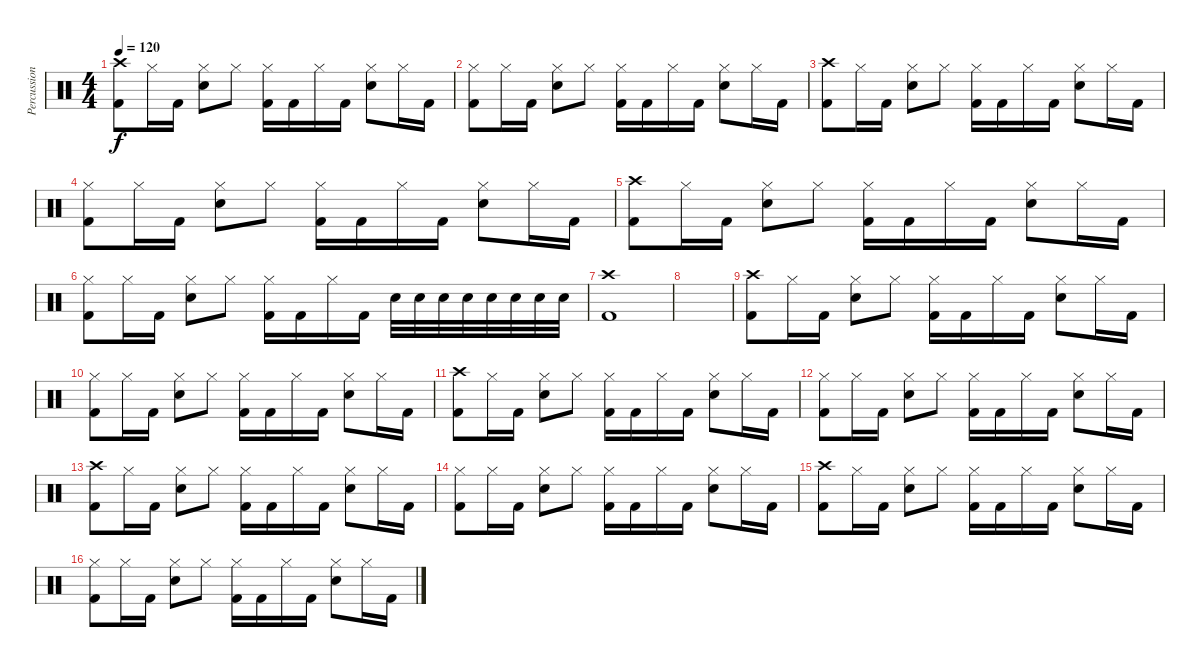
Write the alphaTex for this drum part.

\track ("Percussion" "Percussion") {instrument percussion}
\staff {score}
\articulation defaults
\ts (4 4)
\tempo 120
\clef neutral
\ks c
("Kick (hit) 2" "Crash high (hit)").8{dy f} "Hi-Hat (closed)".16 "Kick (hit) 2".16 ("Snare (hit) 2" "Hi-Hat (closed)").8 "Hi-Hat (closed)".8 ("Kick (hit) 2" "Hi-Hat (closed)").16 "Kick (hit) 2".16 "Hi-Hat (closed)".16 "Kick (hit) 2".16 ("Snare (hit) 2" "Hi-Hat (closed)").8 "Hi-Hat (closed)".16 "Kick (hit) 2".16 |
("Kick (hit) 2" "Hi-Hat (closed)").8 "Hi-Hat (closed)".16 "Kick (hit) 2".16 ("Snare (hit) 2" "Hi-Hat (closed)").8 "Hi-Hat (closed)".8 ("Kick (hit) 2" "Hi-Hat (closed)").16 "Kick (hit) 2".16 "Hi-Hat (closed)".16 "Kick (hit) 2".16 ("Snare (hit) 2" "Hi-Hat (closed)").8 "Hi-Hat (closed)".16 "Kick (hit) 2".16 |
("Kick (hit) 2" "Crash high (hit)").8 "Hi-Hat (closed)".16 "Kick (hit) 2".16 ("Snare (hit) 2" "Hi-Hat (closed)").8 "Hi-Hat (closed)".8 ("Kick (hit) 2" "Hi-Hat (closed)").16 "Kick (hit) 2".16 "Hi-Hat (closed)".16 "Kick (hit) 2".16 ("Snare (hit) 2" "Hi-Hat (closed)").8 "Hi-Hat (closed)".16 "Kick (hit) 2".16 |
("Kick (hit) 2" "Hi-Hat (closed)").8 "Hi-Hat (closed)".16 "Kick (hit) 2".16 ("Snare (hit) 2" "Hi-Hat (closed)").8 "Hi-Hat (closed)".8 ("Kick (hit) 2" "Hi-Hat (closed)").16 "Kick (hit) 2".16 "Hi-Hat (closed)".16 "Kick (hit) 2".16 ("Snare (hit) 2" "Hi-Hat (closed)").8 "Hi-Hat (closed)".16 "Kick (hit) 2".16 |
("Kick (hit) 2" "Crash high (hit)").8 "Hi-Hat (closed)".16 "Kick (hit) 2".16 ("Snare (hit) 2" "Hi-Hat (closed)").8 "Hi-Hat (closed)".8 ("Kick (hit) 2" "Hi-Hat (closed)").16 "Kick (hit) 2".16 "Hi-Hat (closed)".16 "Kick (hit) 2".16 ("Snare (hit) 2" "Hi-Hat (closed)").8 "Hi-Hat (closed)".16 "Kick (hit) 2".16 |
("Kick (hit) 2" "Hi-Hat (closed)").8 "Hi-Hat (closed)".16 "Kick (hit) 2".16 ("Snare (hit) 2" "Hi-Hat (closed)").8 "Hi-Hat (closed)".8 ("Kick (hit) 2" "Hi-Hat (closed)").16 "Kick (hit) 2".16 "Hi-Hat (closed)".16 "Kick (hit) 2".16 "Snare (hit) 2".32 "Snare (hit) 2".32 "Snare (hit) 2".32 "Snare (hit) 2".32 "Snare (hit) 2".32 "Snare (hit) 2".32 "Snare (hit) 2".32 "Snare (hit) 2".32 |
("Crash high (hit)" "Kick (hit) 2").1 |
|
("Kick (hit) 2" "Crash high (hit)").8 "Hi-Hat (closed)".16 "Kick (hit) 2".16 ("Snare (hit) 2" "Hi-Hat (closed)").8 "Hi-Hat (closed)".8 ("Kick (hit) 2" "Hi-Hat (closed)").16 "Kick (hit) 2".16 "Hi-Hat (closed)".16 "Kick (hit) 2".16 ("Snare (hit) 2" "Hi-Hat (closed)").8 "Hi-Hat (closed)".16 "Kick (hit) 2".16 |
("Kick (hit) 2" "Hi-Hat (closed)").8 "Hi-Hat (closed)".16 "Kick (hit) 2".16 ("Snare (hit) 2" "Hi-Hat (closed)").8 "Hi-Hat (closed)".8 ("Kick (hit) 2" "Hi-Hat (closed)").16 "Kick (hit) 2".16 "Hi-Hat (closed)".16 "Kick (hit) 2".16 ("Snare (hit) 2" "Hi-Hat (closed)").8 "Hi-Hat (closed)".16 "Kick (hit) 2".16 |
("Kick (hit) 2" "Crash high (hit)").8 "Hi-Hat (closed)".16 "Kick (hit) 2".16 ("Snare (hit) 2" "Hi-Hat (closed)").8 "Hi-Hat (closed)".8 ("Kick (hit) 2" "Hi-Hat (closed)").16 "Kick (hit) 2".16 "Hi-Hat (closed)".16 "Kick (hit) 2".16 ("Snare (hit) 2" "Hi-Hat (closed)").8 "Hi-Hat (closed)".16 "Kick (hit) 2".16 |
("Kick (hit) 2" "Hi-Hat (closed)").8 "Hi-Hat (closed)".16 "Kick (hit) 2".16 ("Snare (hit) 2" "Hi-Hat (closed)").8 "Hi-Hat (closed)".8 ("Kick (hit) 2" "Hi-Hat (closed)").16 "Kick (hit) 2".16 "Hi-Hat (closed)".16 "Kick (hit) 2".16 ("Snare (hit) 2" "Hi-Hat (closed)").8 "Hi-Hat (closed)".16 "Kick (hit) 2".16 |
("Kick (hit) 2" "Crash high (hit)").8 "Hi-Hat (closed)".16 "Kick (hit) 2".16 ("Snare (hit) 2" "Hi-Hat (closed)").8 "Hi-Hat (closed)".8 ("Kick (hit) 2" "Hi-Hat (closed)").16 "Kick (hit) 2".16 "Hi-Hat (closed)".16 "Kick (hit) 2".16 ("Snare (hit) 2" "Hi-Hat (closed)").8 "Hi-Hat (closed)".16 "Kick (hit) 2".16 |
("Kick (hit) 2" "Hi-Hat (closed)").8 "Hi-Hat (closed)".16 "Kick (hit) 2".16 ("Snare (hit) 2" "Hi-Hat (closed)").8 "Hi-Hat (closed)".8 ("Kick (hit) 2" "Hi-Hat (closed)").16 "Kick (hit) 2".16 "Hi-Hat (closed)".16 "Kick (hit) 2".16 ("Snare (hit) 2" "Hi-Hat (closed)").8 "Hi-Hat (closed)".16 "Kick (hit) 2".16 |
("Kick (hit) 2" "Crash high (hit)").8 "Hi-Hat (closed)".16 "Kick (hit) 2".16 ("Snare (hit) 2" "Hi-Hat (closed)").8 "Hi-Hat (closed)".8 ("Kick (hit) 2" "Hi-Hat (closed)").16 "Kick (hit) 2".16 "Hi-Hat (closed)".16 "Kick (hit) 2".16 ("Snare (hit) 2" "Hi-Hat (closed)").8 "Hi-Hat (closed)".16 "Kick (hit) 2".16 |
("Kick (hit) 2" "Hi-Hat (closed)").8 "Hi-Hat (closed)".16 "Kick (hit) 2".16 ("Snare (hit) 2" "Hi-Hat (closed)").8 "Hi-Hat (closed)".8 ("Kick (hit) 2" "Hi-Hat (closed)").16 "Kick (hit) 2".16 "Hi-Hat (closed)".16 "Kick (hit) 2".16 ("Snare (hit) 2" "Hi-Hat (closed)").8 "Hi-Hat (closed)".16 "Kick (hit) 2".16
